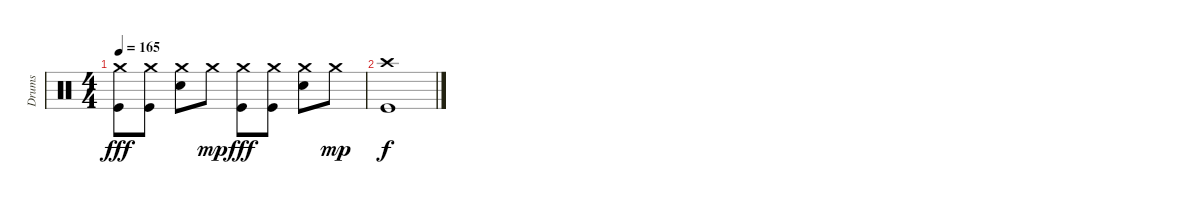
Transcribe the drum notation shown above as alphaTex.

\track ("Drums" "Drums") {instrument percussion}
\staff {score}
\articulation defaults
\ts (4 4)
\tempo 165
\clef neutral
\ks c
("Crash medium (hit)" "Kick (hit)").8{dy fff} ("Crash medium (hit)" "Kick (hit)").8 ("Crash medium (hit)" "Snare (hit) 2").8 "Crash medium (hit)".8{dy mp} ("Crash medium (hit)" "Kick (hit)").8{dy fff} ("Crash medium (hit)" "Kick (hit)").8 ("Crash medium (hit)" "Snare (hit) 2").8 "Crash medium (hit)".8{dy mp} |
("Crash high (hit)" "Kick (hit)").1{dy f}
